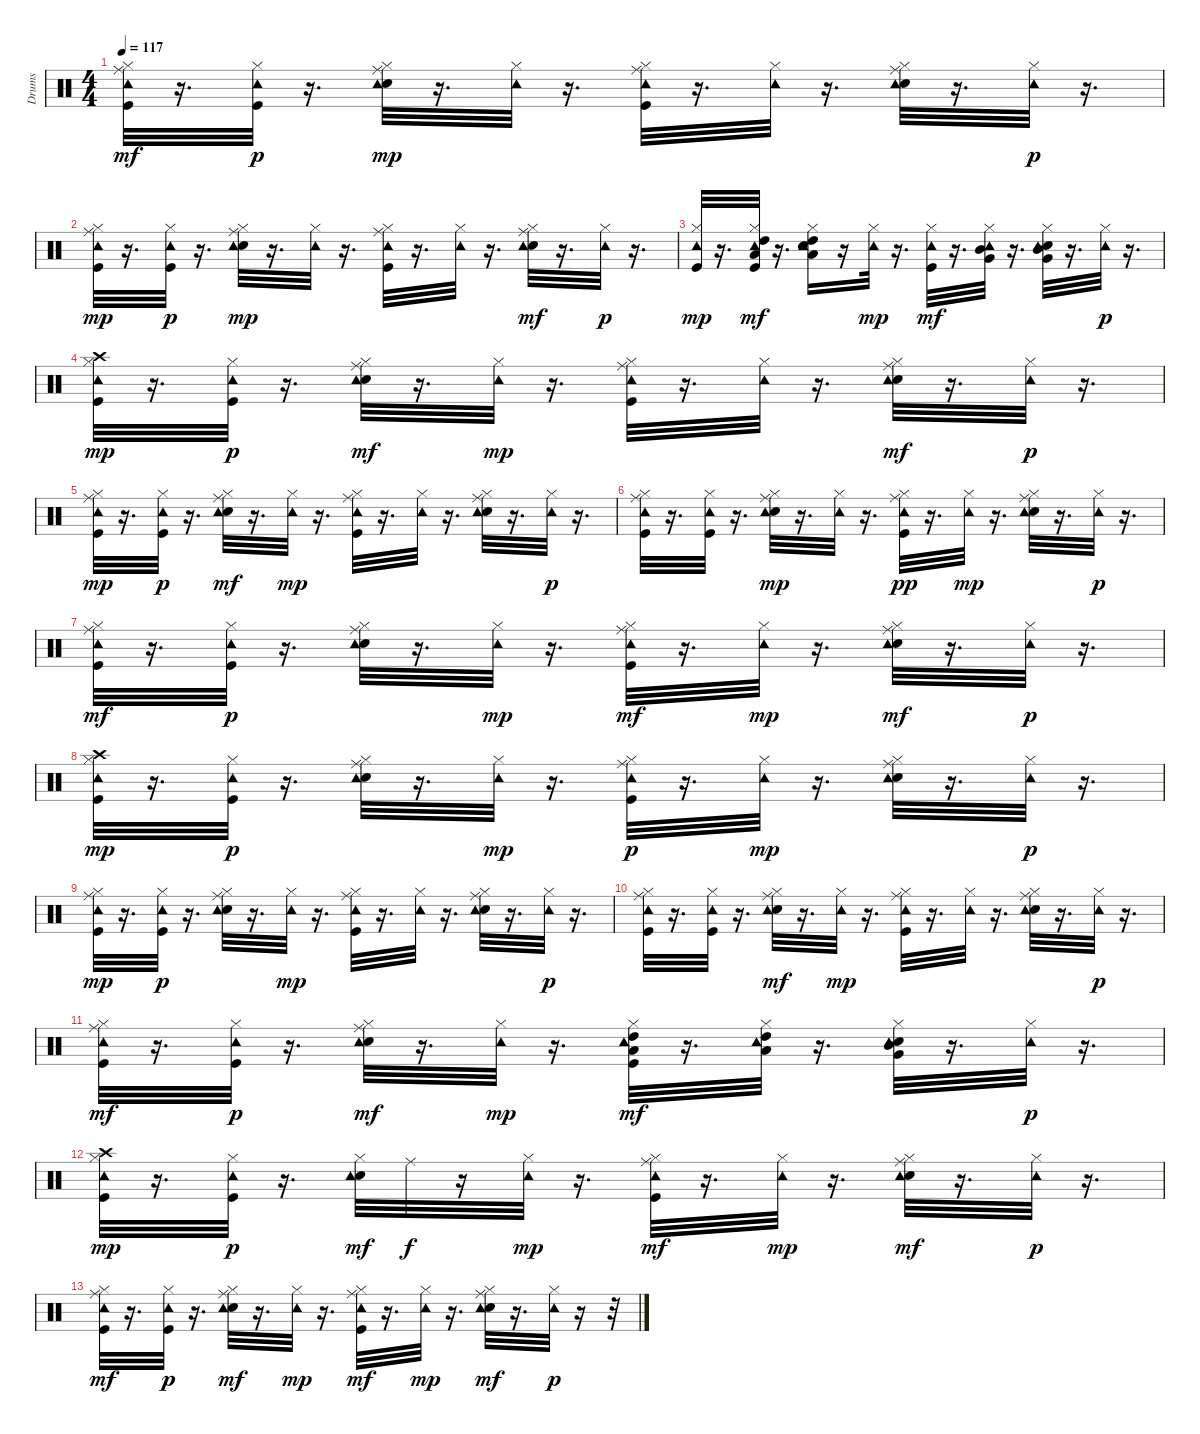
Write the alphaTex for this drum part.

\track ("Drums" "Drums") {instrument percussion}
\staff {score}
\articulation defaults
\ts (4 4)
\tempo 117
\clef neutral
\ks c
("Kick (hit)" "Hi-Hat (closed)" "Tambourine (hit)" "Ride (middle)").32{dy mf} r.16{d} ("Kick (hit)" "Hi-Hat (closed)" "Tambourine (hit)").32{dy p} r.16{d} ("Electric Snare (hit)" "Hi-Hat (closed)" "Tambourine (hit)" "Ride (middle)").32{dy mp} r.16{d} ("Hi-Hat (closed)" "Tambourine (hit)").32 r.16{d} ("Kick (hit)" "Hi-Hat (closed)" "Tambourine (hit)" "Ride (middle)").32 r.16{d} ("Hi-Hat (closed)" "Tambourine (hit)").32 r.16{d} ("Electric Snare (hit)" "Hi-Hat (closed)" "Tambourine (hit)" "Ride (middle)").32 r.16{d} ("Hi-Hat (closed)" "Tambourine (hit)").32{dy p} r.16{d} |
("Kick (hit)" "Hi-Hat (closed)" "Tambourine (hit)" "Ride (middle)").32{dy mp} r.16{d} ("Kick (hit)" "Hi-Hat (closed)" "Tambourine (hit)").32{dy p} r.16{d} ("Electric Snare (hit)" "Hi-Hat (closed)" "Tambourine (hit)" "Ride (middle)").32{dy mp} r.16{d} ("Hi-Hat (closed)" "Tambourine (hit)").32 r.16{d} ("Kick (hit)" "Hi-Hat (closed)" "Tambourine (hit)" "Ride (middle)").32 r.16{d} ("Hi-Hat (closed)" "Tambourine (hit)").32 r.16{d} ("Electric Snare (hit)" "Hi-Hat (closed)" "Tambourine (hit)" "Ride (middle)").32{dy mf} r.16{d} ("Hi-Hat (closed)" "Tambourine (hit)").32{dy p} r.16{d} |
("Kick (hit)" "Hi-Hat (closed)" "Tambourine (hit)").32{dy mp} r.16{d} ("Kick (hit)" "Hi-Hat (closed)" "Tambourine (hit)" "High Tom (hit)" "Low Tom (hit)").32{dy mf} r.16{d} ("Electric Snare (hit)" "Hi-Hat (closed)" "Tambourine (hit)" "High Tom (hit)" "Low Tom (hit)").16 r.16 ("Hi-Hat (closed)" "Tambourine (hit)").32{dy mp} r.16{d} ("Kick (hit)" "Hi-Hat (closed)" "Tambourine (hit)").32{dy mf} r.16{d} ("Mid Tom (hit)" "Hi-Hat (closed)" "Tambourine (hit)" "Very Low Tom (hit)").32 r.16{d} ("Electric Snare (hit)" "Hi-Hat (closed)" "Tambourine (hit)" "Mid Tom (hit)" "Very Low Tom (hit)").32 r.16{d} ("Hi-Hat (closed)" "Tambourine (hit)").32{dy p} r.16{d} |
("Kick (hit)" "Hi-Hat (closed)" "Tambourine (hit)" "Crash high (hit)").32{dy mp} r.16{d} ("Kick (hit)" "Hi-Hat (closed)" "Tambourine (hit)").32{dy p} r.16{d} ("Electric Snare (hit)" "Hi-Hat (closed)" "Tambourine (hit)" "Ride (middle)").32{dy mf} r.16{d} ("Hi-Hat (closed)" "Tambourine (hit)").32{dy mp} r.16{d} ("Kick (hit)" "Hi-Hat (closed)" "Tambourine (hit)" "Ride (middle)").32 r.16{d} ("Hi-Hat (closed)" "Tambourine (hit)").32 r.16{d} ("Electric Snare (hit)" "Hi-Hat (closed)" "Tambourine (hit)" "Ride (middle)").32{dy mf} r.16{d} ("Hi-Hat (closed)" "Tambourine (hit)").32{dy p} r.16{d} |
("Kick (hit)" "Hi-Hat (closed)" "Tambourine (hit)" "Ride (middle)").32{dy mp} r.16{d} ("Kick (hit)" "Hi-Hat (closed)" "Tambourine (hit)").32{dy p} r.16{d} ("Electric Snare (hit)" "Hi-Hat (closed)" "Tambourine (hit)" "Ride (middle)").32{dy mf} r.16{d} ("Hi-Hat (closed)" "Tambourine (hit)").32{dy mp} r.16{d} ("Kick (hit)" "Hi-Hat (closed)" "Tambourine (hit)" "Ride (middle)").32 r.16{d} ("Hi-Hat (closed)" "Tambourine (hit)").32 r.16{d} ("Electric Snare (hit)" "Hi-Hat (closed)" "Tambourine (hit)" "Ride (middle)").32 r.16{d} ("Hi-Hat (closed)" "Tambourine (hit)").32{dy p} r.16{d} |
("Kick (hit)" "Hi-Hat (closed)" "Tambourine (hit)" "Ride (middle)").32 r.16{d} ("Kick (hit)" "Hi-Hat (closed)" "Tambourine (hit)").32 r.16{d} ("Electric Snare (hit)" "Hi-Hat (closed)" "Tambourine (hit)" "Ride (middle)").32{dy mp} r.16{d} ("Hi-Hat (closed)" "Tambourine (hit)").32 r.16{d} ("Kick (hit)" "Hi-Hat (closed)" "Tambourine (hit)" "Ride (middle)").32{dy pp} r.16{d} ("Hi-Hat (closed)" "Tambourine (hit)").32{dy mp} r.16{d} ("Electric Snare (hit)" "Hi-Hat (closed)" "Tambourine (hit)" "Ride (middle)").32 r.16{d} ("Hi-Hat (closed)" "Tambourine (hit)").32{dy p} r.16{d} |
("Kick (hit)" "Hi-Hat (closed)" "Tambourine (hit)" "Ride (middle)").32{dy mf} r.16{d} ("Kick (hit)" "Hi-Hat (closed)" "Tambourine (hit)").32{dy p} r.16{d} ("Electric Snare (hit)" "Hi-Hat (closed)" "Tambourine (hit)" "Ride (middle)").32 r.16{d} ("Hi-Hat (closed)" "Tambourine (hit)").32{dy mp} r.16{d} ("Kick (hit)" "Hi-Hat (closed)" "Tambourine (hit)" "Ride (middle)").32{dy mf} r.16{d} ("Hi-Hat (closed)" "Tambourine (hit)").32{dy mp} r.16{d} ("Electric Snare (hit)" "Hi-Hat (closed)" "Tambourine (hit)" "Ride (middle)").32{dy mf} r.16{d} ("Hi-Hat (closed)" "Tambourine (hit)").32{dy p} r.16{d} |
("Crash high (hit)" "Kick (hit)" "Hi-Hat (closed)" "Tambourine (hit)").32{dy mp} r.16{d} ("Kick (hit)" "Hi-Hat (closed)" "Tambourine (hit)").32{dy p} r.16{d} ("Electric Snare (hit)" "Hi-Hat (closed)" "Tambourine (hit)" "Ride (middle)").32 r.16{d} ("Hi-Hat (closed)" "Tambourine (hit)").32{dy mp} r.16{d} ("Kick (hit)" "Hi-Hat (closed)" "Tambourine (hit)" "Ride (middle)").32{dy p} r.16{d} ("Hi-Hat (closed)" "Tambourine (hit)").32{dy mp} r.16{d} ("Electric Snare (hit)" "Hi-Hat (closed)" "Tambourine (hit)" "Ride (middle)").32 r.16{d} ("Hi-Hat (closed)" "Tambourine (hit)").32{dy p} r.16{d} |
("Kick (hit)" "Hi-Hat (closed)" "Tambourine (hit)" "Ride (middle)").32{dy mp} r.16{d} ("Kick (hit)" "Hi-Hat (closed)" "Tambourine (hit)").32{dy p} r.16{d} ("Electric Snare (hit)" "Hi-Hat (closed)" "Tambourine (hit)" "Ride (middle)").32 r.16{d} ("Hi-Hat (closed)" "Tambourine (hit)").32{dy mp} r.16{d} ("Kick (hit)" "Hi-Hat (closed)" "Tambourine (hit)" "Ride (middle)").32 r.16{d} ("Hi-Hat (closed)" "Tambourine (hit)").32 r.16{d} ("Electric Snare (hit)" "Hi-Hat (closed)" "Tambourine (hit)" "Ride (middle)").32 r.16{d} ("Hi-Hat (closed)" "Tambourine (hit)").32{dy p} r.16{d} |
("Kick (hit)" "Hi-Hat (closed)" "Tambourine (hit)" "Ride (middle)").32 r.16{d} ("Kick (hit)" "Hi-Hat (closed)" "Tambourine (hit)").32 r.16{d} ("Electric Snare (hit)" "Hi-Hat (closed)" "Tambourine (hit)" "Ride (middle)").32{dy mf} r.16{d} ("Hi-Hat (closed)" "Tambourine (hit)").32{dy mp} r.16{d} ("Kick (hit)" "Hi-Hat (closed)" "Tambourine (hit)" "Ride (middle)").32 r.16{d} ("Hi-Hat (closed)" "Tambourine (hit)").32 r.16{d} ("Electric Snare (hit)" "Hi-Hat (closed)" "Tambourine (hit)" "Ride (middle)").32 r.16{d} ("Hi-Hat (closed)" "Tambourine (hit)").32{dy p} r.16{d} |
("Kick (hit)" "Hi-Hat (closed)" "Tambourine (hit)" "Ride (middle)").32{dy mf} r.16{d} ("Kick (hit)" "Hi-Hat (closed)" "Tambourine (hit)").32{dy p} r.16{d} ("Electric Snare (hit)" "Hi-Hat (closed)" "Tambourine (hit)" "Ride (middle)").32{dy mf} r.16{d} ("Hi-Hat (closed)" "Tambourine (hit)").32{dy mp} r.16{d} ("Kick (hit)" "Hi-Hat (closed)" "Tambourine (hit)" "High Tom (hit)" "Low Tom (hit)").32{dy mf} r.16{d} ("Hi-Hat (closed)" "Tambourine (hit)" "High Tom (hit)" "Low Tom (hit)").32 r.16{d} ("Electric Snare (hit)" "Hi-Hat (closed)" "Tambourine (hit)" "Mid Tom (hit)" "Very Low Tom (hit)").32 r.16{d} ("Hi-Hat (closed)" "Tambourine (hit)").32{dy p} r.16{d} |
("Kick (hit)" "Hi-Hat (closed)" "Tambourine (hit)" "Crash high (hit)").32{dy mp} r.16{d} ("Kick (hit)" "Hi-Hat (closed)" "Tambourine (hit)").32{dy p} r.16{d} ("Electric Snare (hit)" "Hi-Hat (closed)" "Tambourine (hit)").32{dy mf} "Ride (middle)".32{dy f} r.16 ("Hi-Hat (closed)" "Tambourine (hit)").32{dy mp} r.16{d} ("Kick (hit)" "Hi-Hat (closed)" "Tambourine (hit)" "Ride (middle)").32{dy mf} r.16{d} ("Hi-Hat (closed)" "Tambourine (hit)").32{dy mp} r.16{d} ("Electric Snare (hit)" "Hi-Hat (closed)" "Tambourine (hit)" "Ride (middle)").32{dy mf} r.16{d} ("Hi-Hat (closed)" "Tambourine (hit)").32{dy p} r.16{d} |
("Kick (hit)" "Hi-Hat (closed)" "Tambourine (hit)" "Ride (middle)").32{dy mf} r.16{d} ("Kick (hit)" "Hi-Hat (closed)" "Tambourine (hit)").32{dy p} r.16{d} ("Electric Snare (hit)" "Hi-Hat (closed)" "Tambourine (hit)" "Ride (middle)").32{dy mf} r.16{d} ("Hi-Hat (closed)" "Tambourine (hit)").32{dy mp} r.16{d} ("Kick (hit)" "Hi-Hat (closed)" "Tambourine (hit)" "Ride (middle)").32{dy mf} r.16{d} ("Hi-Hat (closed)" "Tambourine (hit)").32{dy mp} r.16{d} ("Electric Snare (hit)" "Hi-Hat (closed)" "Tambourine (hit)" "Ride (middle)").32{dy mf} r.16{d} ("Hi-Hat (closed)" "Tambourine (hit)").32{dy p} r.16 r.32
